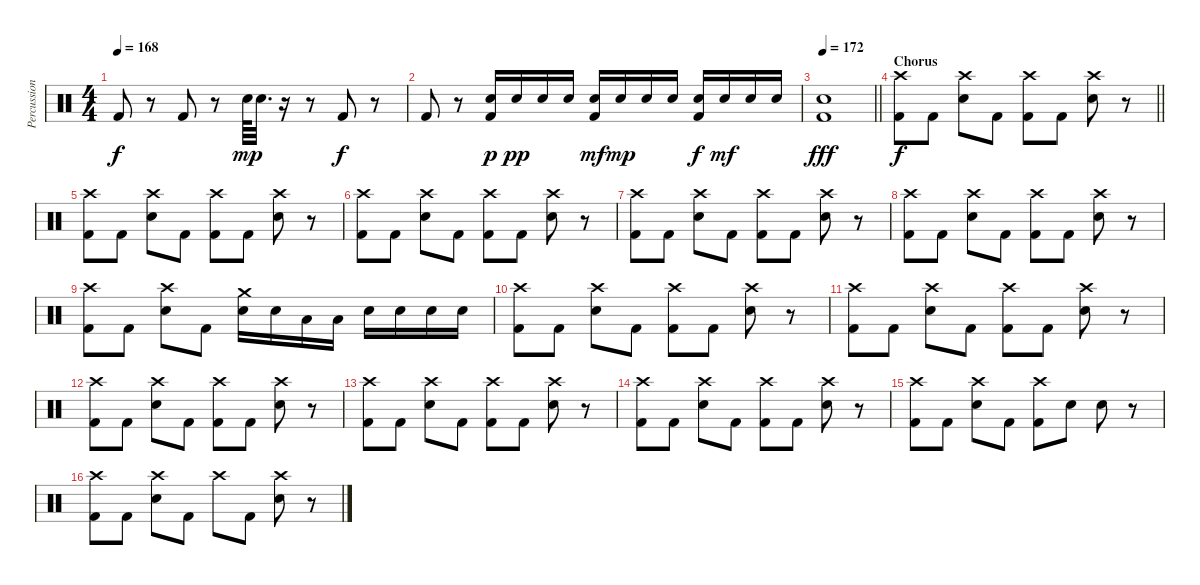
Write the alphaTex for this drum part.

\track ("Percussion" "Percussion") {instrument percussion}
\staff {score}
\articulation defaults
\ts (4 4)
\tempo 168
\clef neutral
\ks c "Kick (hit) 2".8{dy f}
r.8 "Kick (hit) 2".8 r.8 "Snare (hit) 2".64{dy mp} "Snare (hit) 2".32{d} r.16 r.8 "Kick (hit) 2".8{dy f} r.8 |
"Kick (hit) 2".8 r.8 ("Snare (hit) 2" "Kick (hit) 2").16{dy p} "Snare (hit) 2".16{dy pp} "Snare (hit) 2".16 "Snare (hit) 2".16 ("Snare (hit) 2" "Kick (hit) 2").16{dy mf} "Snare (hit) 2".16{dy mp} "Snare (hit) 2".16 "Snare (hit) 2".16 ("Snare (hit) 2" "Kick (hit) 2").16{dy f} "Snare (hit) 2".16{dy mf} "Snare (hit) 2".16 "Snare (hit) 2".16 |
\tempo 172
\barLineRight lightlight
("Snare (hit) 2" "Kick (hit) 2").1{dy fff} |
\section ("" "Chorus")
\barLineRight lightlight
("Crash high (hit)" "Kick (hit) 2").8{dy f} "Kick (hit) 2".8 ("Crash high (hit)" "Snare (hit) 2").8 "Kick (hit) 2".8 ("Crash high (hit)" "Kick (hit) 2").8 "Kick (hit) 2".8 ("Crash high (hit)" "Snare (hit) 2").8 r.8 |
("Crash high (hit)" "Kick (hit) 2").8 "Kick (hit) 2".8 ("Crash high (hit)" "Snare (hit) 2").8 "Kick (hit) 2".8 ("Crash high (hit)" "Kick (hit) 2").8 "Kick (hit) 2".8 ("Crash high (hit)" "Snare (hit) 2").8 r.8 |
("Crash high (hit)" "Kick (hit) 2").8 "Kick (hit) 2".8 ("Crash high (hit)" "Snare (hit) 2").8 "Kick (hit) 2".8 ("Crash high (hit)" "Kick (hit) 2").8 "Kick (hit) 2".8 ("Crash high (hit)" "Snare (hit) 2").8 r.8 |
("Crash high (hit)" "Kick (hit) 2").8 "Kick (hit) 2".8 ("Crash high (hit)" "Snare (hit) 2").8 "Kick (hit) 2".8 ("Crash high (hit)" "Kick (hit) 2").8 "Kick (hit) 2".8 ("Crash high (hit)" "Snare (hit) 2").8 r.8 |
("Crash high (hit)" "Kick (hit) 2").8 "Kick (hit) 2".8 ("Crash high (hit)" "Snare (hit) 2").8 "Kick (hit) 2".8 ("Crash high (hit)" "Kick (hit) 2").8 "Kick (hit) 2".8 ("Crash high (hit)" "Snare (hit) 2").8 r.8 |
("Crash high (hit)" "Kick (hit) 2").8 "Kick (hit) 2".8 ("Crash high (hit)" "Snare (hit) 2").8 "Kick (hit) 2".8 ("Crash medium (hit)" "Snare (hit) 2").16 "Snare (hit) 2".16 "Low Tom (hit)".16 "Low Floor Tom (hit)".16 "Snare (hit) 2".16 "Snare (hit) 2".16 "Snare (hit) 2".16 "Snare (hit) 2".16 |
("Crash high (hit)" "Kick (hit) 2").8 "Kick (hit) 2".8 ("Crash high (hit)" "Snare (hit) 2").8 "Kick (hit) 2".8 ("Crash high (hit)" "Kick (hit) 2").8 "Kick (hit) 2".8 ("Crash high (hit)" "Snare (hit) 2").8 r.8 |
("Crash high (hit)" "Kick (hit) 2").8 "Kick (hit) 2".8 ("Crash high (hit)" "Snare (hit) 2").8 "Kick (hit) 2".8 ("Crash high (hit)" "Kick (hit) 2").8 "Kick (hit) 2".8 ("Crash high (hit)" "Snare (hit) 2").8 r.8 |
("Crash high (hit)" "Kick (hit) 2").8 "Kick (hit) 2".8 ("Crash high (hit)" "Snare (hit) 2").8 "Kick (hit) 2".8 ("Crash high (hit)" "Kick (hit) 2").8 "Kick (hit) 2".8 ("Crash high (hit)" "Snare (hit) 2").8 r.8 |
("Crash high (hit)" "Kick (hit) 2").8 "Kick (hit) 2".8 ("Crash high (hit)" "Snare (hit) 2").8 "Kick (hit) 2".8 ("Crash high (hit)" "Kick (hit) 2").8 "Kick (hit) 2".8 ("Crash high (hit)" "Snare (hit) 2").8 r.8 |
("Crash high (hit)" "Kick (hit) 2").8 "Kick (hit) 2".8 ("Crash high (hit)" "Snare (hit) 2").8 "Kick (hit) 2".8 ("Crash high (hit)" "Kick (hit) 2").8 "Kick (hit) 2".8 ("Crash high (hit)" "Snare (hit) 2").8 r.8 |
("Crash high (hit)" "Kick (hit) 2").8 "Kick (hit) 2".8 ("Crash high (hit)" "Snare (hit) 2").8 "Kick (hit) 2".8 ("Crash high (hit)" "Kick (hit) 2").8 "Snare (hit) 2".8 "Snare (hit) 2".8 r.8 |
("Crash high (hit)" "Kick (hit) 2").8 "Kick (hit) 2".8 ("Crash high (hit)" "Snare (hit) 2").8 "Kick (hit) 2".8 "Crash high (hit)".8 "Kick (hit) 2".8 ("Crash high (hit)" "Snare (hit) 2").8 r.8
